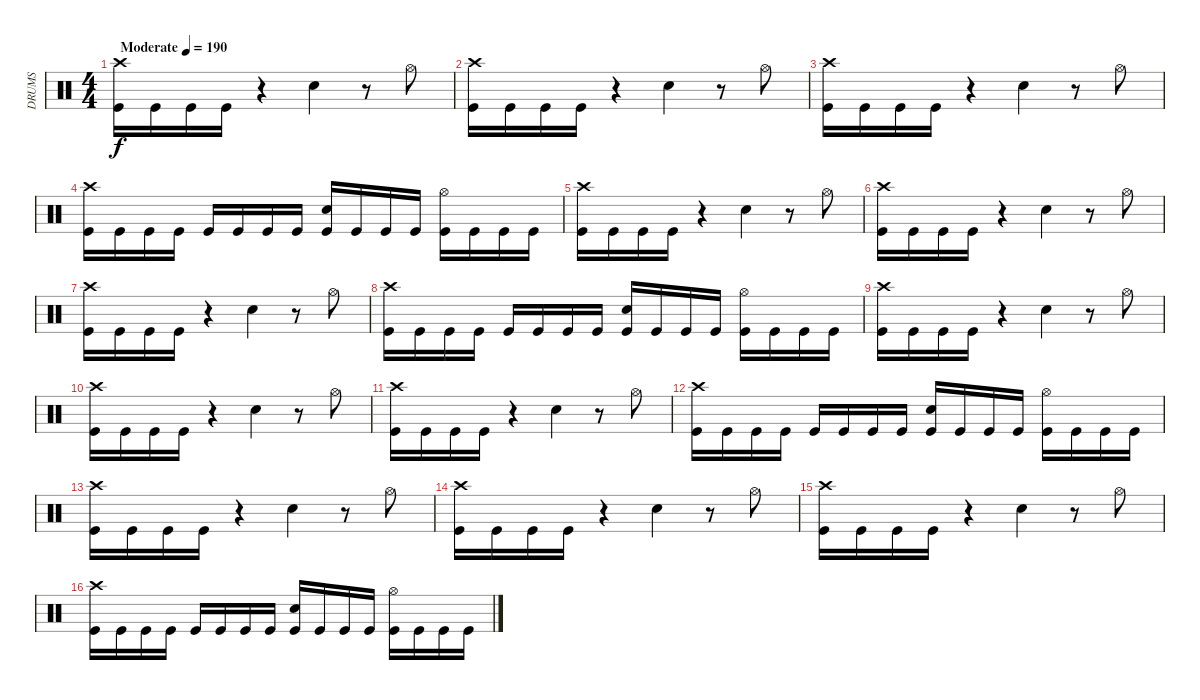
\track ("DRUMS" "DRUMS") {instrument percussion}
\staff {score}
\articulation defaults
\ts (4 4)
\tempo (190 "Moderate")
\clef neutral
\ks c
("Crash high (hit)" "Kick (hit)").16{dy f} "Kick (hit)".16 "Kick (hit)".16 "Kick (hit)".16 r.4 "Electric Snare (hit)".4 r.8 "Hi-Hat (open)".8 |
("Crash high (hit)" "Kick (hit)").16 "Kick (hit)".16 "Kick (hit)".16 "Kick (hit)".16 r.4 "Electric Snare (hit)".4 r.8 "Hi-Hat (open)".8 |
("Crash high (hit)" "Kick (hit)").16 "Kick (hit)".16 "Kick (hit)".16 "Kick (hit)".16 r.4 "Electric Snare (hit)".4 r.8 "Hi-Hat (open)".8 |
("Crash high (hit)" "Kick (hit)").16 "Kick (hit)".16 "Kick (hit)".16 "Kick (hit)".16 "Kick (hit)".16 "Kick (hit)".16 "Kick (hit)".16 "Kick (hit)".16 ("Electric Snare (hit)" "Kick (hit)").16 "Kick (hit)".16 "Kick (hit)".16 "Kick (hit)".16 ("Hi-Hat (open)" "Kick (hit)").16 "Kick (hit)".16 "Kick (hit)".16 "Kick (hit)".16 |
("Crash high (hit)" "Kick (hit)").16 "Kick (hit)".16 "Kick (hit)".16 "Kick (hit)".16 r.4 "Electric Snare (hit)".4 r.8 "Hi-Hat (open)".8 |
("Crash high (hit)" "Kick (hit)").16 "Kick (hit)".16 "Kick (hit)".16 "Kick (hit)".16 r.4 "Electric Snare (hit)".4 r.8 "Hi-Hat (open)".8 |
("Crash high (hit)" "Kick (hit)").16 "Kick (hit)".16 "Kick (hit)".16 "Kick (hit)".16 r.4 "Electric Snare (hit)".4 r.8 "Hi-Hat (open)".8 |
("Crash high (hit)" "Kick (hit)").16 "Kick (hit)".16 "Kick (hit)".16 "Kick (hit)".16 "Kick (hit)".16 "Kick (hit)".16 "Kick (hit)".16 "Kick (hit)".16 ("Electric Snare (hit)" "Kick (hit)").16 "Kick (hit)".16 "Kick (hit)".16 "Kick (hit)".16 ("Hi-Hat (open)" "Kick (hit)").16 "Kick (hit)".16 "Kick (hit)".16 "Kick (hit)".16 |
("Crash high (hit)" "Kick (hit)").16 "Kick (hit)".16 "Kick (hit)".16 "Kick (hit)".16 r.4 "Electric Snare (hit)".4 r.8 "Hi-Hat (open)".8 |
("Crash high (hit)" "Kick (hit)").16 "Kick (hit)".16 "Kick (hit)".16 "Kick (hit)".16 r.4 "Electric Snare (hit)".4 r.8 "Hi-Hat (open)".8 |
("Crash high (hit)" "Kick (hit)").16 "Kick (hit)".16 "Kick (hit)".16 "Kick (hit)".16 r.4 "Electric Snare (hit)".4 r.8 "Hi-Hat (open)".8 |
("Crash high (hit)" "Kick (hit)").16 "Kick (hit)".16 "Kick (hit)".16 "Kick (hit)".16 "Kick (hit)".16 "Kick (hit)".16 "Kick (hit)".16 "Kick (hit)".16 ("Electric Snare (hit)" "Kick (hit)").16 "Kick (hit)".16 "Kick (hit)".16 "Kick (hit)".16 ("Hi-Hat (open)" "Kick (hit)").16 "Kick (hit)".16 "Kick (hit)".16 "Kick (hit)".16 |
("Crash high (hit)" "Kick (hit)").16 "Kick (hit)".16 "Kick (hit)".16 "Kick (hit)".16 r.4 "Electric Snare (hit)".4 r.8 "Hi-Hat (open)".8 |
("Crash high (hit)" "Kick (hit)").16 "Kick (hit)".16 "Kick (hit)".16 "Kick (hit)".16 r.4 "Electric Snare (hit)".4 r.8 "Hi-Hat (open)".8 |
("Crash high (hit)" "Kick (hit)").16 "Kick (hit)".16 "Kick (hit)".16 "Kick (hit)".16 r.4 "Electric Snare (hit)".4 r.8 "Hi-Hat (open)".8 |
("Crash high (hit)" "Kick (hit)").16 "Kick (hit)".16 "Kick (hit)".16 "Kick (hit)".16 "Kick (hit)".16 "Kick (hit)".16 "Kick (hit)".16 "Kick (hit)".16 ("Electric Snare (hit)" "Kick (hit)").16 "Kick (hit)".16 "Kick (hit)".16 "Kick (hit)".16 ("Hi-Hat (open)" "Kick (hit)").16 "Kick (hit)".16 "Kick (hit)".16 "Kick (hit)".16
